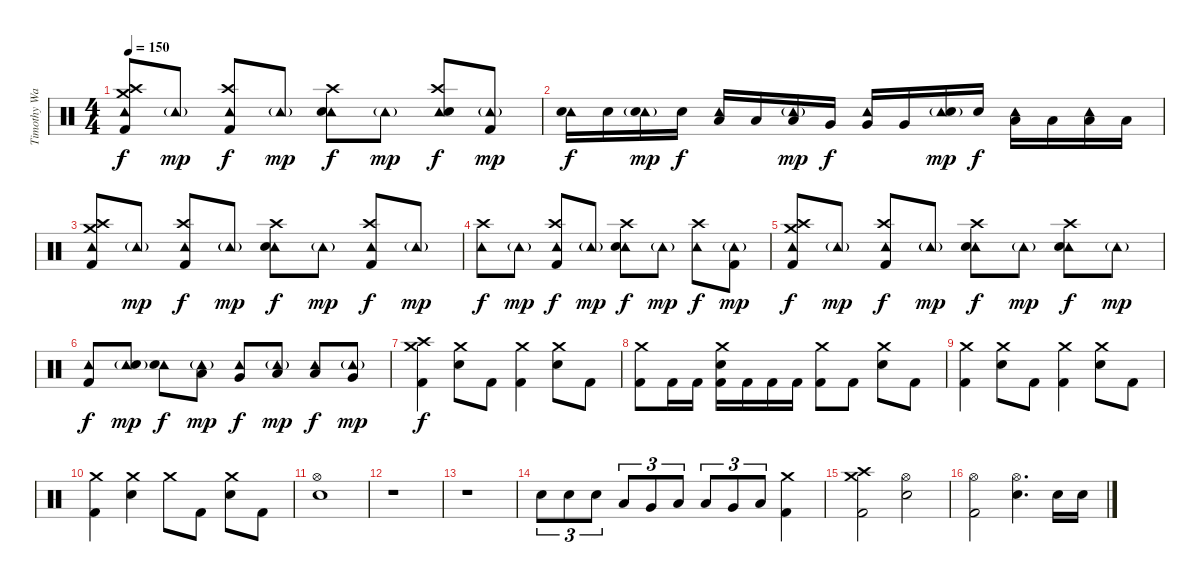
\track ("Timothy Watts" "Timothy Wa") {instrument percussion}
\staff {score}
\articulation defaults
\ts (4 4)
\tempo 150
\clef neutral
\ks c
("Tambourine (hit)" "Crash medium (hit)" "Crash high (hit)" "Kick (hit) 2").8{dy f} "Tambourine (hit)"{g}.8{dy mp} ("Tambourine (hit)" "Crash high (hit)" "Kick (hit) 2").8{dy f} "Tambourine (hit)"{g}.8{dy mp} ("Tambourine (hit)" "Crash high (hit)" "Electric Snare (hit)").8{dy f} "Tambourine (hit)"{g}.8{dy mp} ("Tambourine (hit)" "Crash high (hit)" "Electric Snare (hit)").8{dy f} ("Tambourine (hit)"{g} "Kick (hit) 2").8{dy mp} |
("Tambourine (hit)" "Electric Snare (hit)").16{dy f} "Electric Snare (hit)".16 ("Tambourine (hit)"{g} "Electric Snare (hit)").16{dy mp} "Electric Snare (hit)".16{dy f} ("Tambourine (hit)" "Low Tom (hit)").16 "Low Tom (hit)".16 ("Tambourine (hit)"{g} "Low Tom (hit)").16{dy mp} "Very Low Tom (hit)".16{dy f} ("Tambourine (hit)" "Very Low Tom (hit)").16 "Very Low Tom (hit)".16 ("Tambourine (hit)"{g} "Electric Snare (hit)").16{dy mp} "Electric Snare (hit)".16{dy f} ("Tambourine (hit)" "Low Floor Tom (hit)").16 "Low Floor Tom (hit)".16 ("Tambourine (hit)" "Low Floor Tom (hit)").16 "Low Floor Tom (hit)".16 |
("Tambourine (hit)" "Crash medium (hit)" "Crash high (hit)" "Kick (hit) 2").8 "Tambourine (hit)"{g}.8{dy mp} ("Tambourine (hit)" "Crash high (hit)" "Kick (hit) 2").8{dy f} "Tambourine (hit)"{g}.8{dy mp} ("Tambourine (hit)" "Crash high (hit)" "Electric Snare (hit)").8{dy f} "Tambourine (hit)"{g}.8{dy mp} ("Tambourine (hit)" "Crash high (hit)" "Kick (hit) 2").8{dy f} "Tambourine (hit)"{g}.8{dy mp} |
("Tambourine (hit)" "Crash high (hit)").8{dy f} "Tambourine (hit)"{g}.8{dy mp} ("Tambourine (hit)" "Crash high (hit)" "Kick (hit) 2").8{dy f} "Tambourine (hit)"{g}.8{dy mp} ("Tambourine (hit)" "Crash high (hit)" "Electric Snare (hit)").8{dy f} "Tambourine (hit)"{g}.8{dy mp} ("Tambourine (hit)" "Crash high (hit)").8{dy f} ("Tambourine (hit)"{g} "Kick (hit) 2").8{dy mp} |
("Tambourine (hit)" "Crash medium (hit)" "Crash high (hit)" "Kick (hit) 2").8{dy f} "Tambourine (hit)"{g}.8{dy mp} ("Tambourine (hit)" "Crash high (hit)" "Kick (hit) 2").8{dy f} "Tambourine (hit)"{g}.8{dy mp} ("Tambourine (hit)" "Crash high (hit)" "Electric Snare (hit)").8{dy f} "Tambourine (hit)"{g}.8{dy mp} ("Tambourine (hit)" "Crash high (hit)" "Electric Snare (hit)").8{dy f} "Tambourine (hit)"{g}.8{dy mp} |
("Tambourine (hit)" "Kick (hit) 2").8{dy f} ("Tambourine (hit)"{g} "Electric Snare (hit)").8{dy mp} ("Tambourine (hit)" "Electric Snare (hit)").8{dy f} ("Tambourine (hit)"{g} "Low Tom (hit)").8{dy mp} ("Tambourine (hit)" "Very Low Tom (hit)").8{dy f} ("Tambourine (hit)"{g} "Low Floor Tom (hit)").8{dy mp} ("Tambourine (hit)" "Low Tom (hit)").8{dy f} ("Tambourine (hit)"{g} "Very Low Tom (hit)").8{dy mp} |
("Crash medium (hit)" "Crash high (hit)" "Kick (hit) 2").4{dy f} ("Crash medium (hit)" "Electric Snare (hit)").8 "Kick (hit) 2".8 ("Crash medium (hit)" "Kick (hit) 2").4 ("Crash medium (hit)" "Electric Snare (hit)").8 "Kick (hit) 2".8 |
("Crash medium (hit)" "Kick (hit) 2").8 "Kick (hit) 2".16 "Kick (hit) 2".16 ("Crash medium (hit)" "Electric Snare (hit)" "Kick (hit) 2").16 "Kick (hit) 2".16 "Kick (hit) 2".16 "Kick (hit) 2".16 ("Crash medium (hit)" "Kick (hit) 2").8 "Kick (hit) 2".8 ("Crash medium (hit)" "Electric Snare (hit)").8 "Kick (hit) 2".8 |
("Crash medium (hit)" "Kick (hit) 2").4 ("Crash medium (hit)" "Electric Snare (hit)").8 "Kick (hit) 2".8 ("Crash medium (hit)" "Kick (hit) 2").4 ("Crash medium (hit)" "Electric Snare (hit)").8 "Kick (hit) 2".8 |
("Crash medium (hit)" "Kick (hit) 2").4 ("Crash medium (hit)" "Electric Snare (hit)").4 "Crash medium (hit)".8 "Kick (hit) 2".8 ("Crash medium (hit)" "Electric Snare (hit)").8 "Kick (hit) 2".8 |
("Hi-Hat (open)" "Electric Snare (hit)").1 |
r.1 |
r.1 |
"Electric Snare (hit)".8{tu (3 2)} "Electric Snare (hit)".8{tu (3 2)} "Electric Snare (hit)".8{tu (3 2)} "Low Tom (hit)".8{tu (3 2)} "Very Low Tom (hit)".8{tu (3 2)} "Low Floor Tom (hit)".8{tu (3 2)} "Low Tom (hit)".8{tu (3 2)} "Very Low Tom (hit)".8{tu (3 2)} "Low Floor Tom (hit)".8{tu (3 2)} ("Crash medium (hit)" "Kick (hit) 2").4 |
("Crash medium (hit)" "Crash high (hit)" "Kick (hit) 2").2 ("Hi-Hat (open)" "Electric Snare (hit)").2 |
("Hi-Hat (open)" "Kick (hit) 2").2 ("Hi-Hat (open)" "Electric Snare (hit)").4{d} "Electric Snare (hit)".16 "Electric Snare (hit)".16
